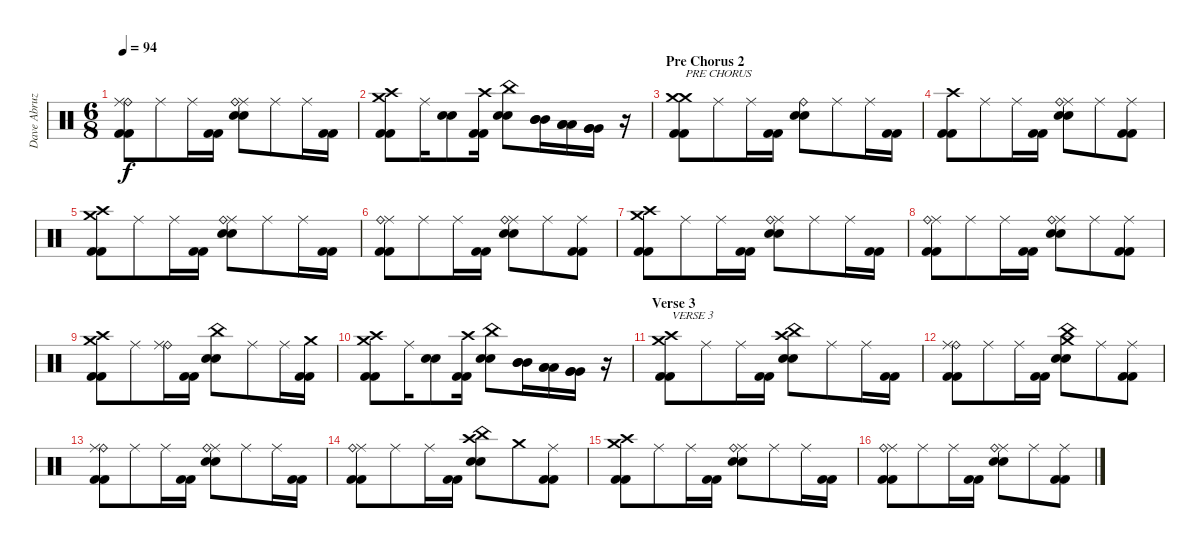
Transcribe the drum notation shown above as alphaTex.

\track ("Dave Abruzzese" "Dave Abruz") {instrument percussion}
\staff {score}
\articulation defaults
\ts (6 8)
\tempo 94
\clef neutral
\ks c
("Ride (bell)" "Ride (middle)" "Kick (hit) 2" "Kick (hit) 2").8{dy f} "Ride (middle)".8 "Ride (middle)".16 ("Kick (hit) 2" "Kick (hit) 2").16 ("Ride (middle)" "Ride (bell)" "Electric Snare (hit)" "Electric Snare (hit)").8 "Ride (middle)".8 "Ride (middle)".16 ("Kick (hit) 2" "Kick (hit) 2").16 |
("Crash medium (hit)" "Crash high (hit)" "Kick (hit) 2" "Kick (hit) 2").8 "Ride (middle)".16 ("Electric Snare (hit)" "Electric Snare (hit)").8 ("Crash high (hit)" "Kick (hit) 2" "Kick (hit) 2").16 ("China (hit)" "Electric Snare (hit)" "Electric Snare (hit)").8 ("Mid Tom (hit)" "Mid Tom (hit)" "Mid Tom (hit)").16 ("Low Tom (hit)" "Low Tom (hit)" "Low Tom (hit)").16 ("Very Low Tom (hit)" "Very Low Tom (hit)" "Very Low Tom (hit)").16 r.16 |
\section ("" "Pre Chorus 2")
("Crash medium (hit)" "Crash medium (hit)" "Kick (hit) 2" "Kick (hit) 2").8{txt "PRE CHORUS"} "Ride (middle)".8 "Ride (middle)".16 ("Kick (hit) 2" "Kick (hit) 2").16 ("Ride (bell)" "Electric Snare (hit)" "Electric Snare (hit)").8 "Ride (middle)".8 "Ride (middle)".16 ("Kick (hit) 2" "Kick (hit) 2").16 |
("Crash high (hit)" "Kick (hit) 2" "Kick (hit) 2").8 "Ride (middle)".8 "Ride (middle)".16 ("Kick (hit) 2" "Kick (hit) 2").16 ("Ride (middle)" "Ride (bell)" "Electric Snare (hit)" "Electric Snare (hit)").8 "Ride (middle)".8 ("Ride (middle)" "Kick (hit) 2" "Kick (hit) 2").8 |
("Crash medium (hit)" "Crash high (hit)" "Kick (hit) 2" "Kick (hit) 2").8 "Ride (middle)".8 "Ride (middle)".16 ("Kick (hit) 2" "Kick (hit) 2").16 ("Ride (middle)" "Ride (bell)" "Electric Snare (hit)" "Electric Snare (hit)").8 "Ride (middle)".8 "Ride (middle)".16 ("Kick (hit) 2" "Kick (hit) 2").16 |
("Ride (middle)" "Ride (bell)" "Kick (hit) 2" "Kick (hit) 2").8 "Ride (middle)".8 "Ride (middle)".16 ("Kick (hit) 2" "Kick (hit) 2").16 ("Ride (middle)" "Ride (bell)" "Electric Snare (hit)" "Electric Snare (hit)").8 "Ride (middle)".8 ("Ride (middle)" "Kick (hit) 2" "Kick (hit) 2").8 |
("Crash medium (hit)" "Crash high (hit)" "Kick (hit) 2" "Kick (hit) 2").8 "Ride (middle)".8 "Ride (middle)".16 ("Kick (hit) 2" "Kick (hit) 2").16 ("Ride (middle)" "Ride (bell)" "Electric Snare (hit)" "Electric Snare (hit)").8 "Ride (middle)".8 "Ride (middle)".16 ("Kick (hit) 2" "Kick (hit) 2").16 |
("Ride (middle)" "Ride (bell)" "Kick (hit) 2" "Kick (hit) 2").8 "Ride (middle)".8 "Ride (middle)".16 ("Kick (hit) 2" "Kick (hit) 2").16 ("Ride (middle)" "Ride (bell)" "Electric Snare (hit)" "Electric Snare (hit)").8 "Ride (middle)".8 ("Ride (middle)" "Kick (hit) 2" "Kick (hit) 2").8 |
("Crash medium (hit)" "Crash high (hit)" "Kick (hit) 2" "Kick (hit) 2").8 "Ride (middle)".8 ("Ride (bell)" "Ride (middle)").16 ("Kick (hit) 2" "Kick (hit) 2").16 ("China (hit)" "Electric Snare (hit)" "Electric Snare (hit)").8 "Ride (middle)".8 "Ride (middle)".16 ("Crash medium (hit)" "Kick (hit) 2" "Kick (hit) 2").16 |
("Crash medium (hit)" "Crash high (hit)" "Kick (hit) 2" "Kick (hit) 2").8 "Ride (middle)".16 ("Electric Snare (hit)" "Electric Snare (hit)").8 ("Crash high (hit)" "Kick (hit) 2" "Kick (hit) 2").16 ("China (hit)" "Electric Snare (hit)" "Electric Snare (hit)").8 ("Mid Tom (hit)" "Mid Tom (hit)" "Mid Tom (hit)").16 ("Low Tom (hit)" "Low Tom (hit)" "Low Tom (hit)").16 ("Very Low Tom (hit)" "Very Low Tom (hit)" "Very Low Tom (hit)").16 r.16 |
\section ("" "Verse 3")
("Crash medium (hit)" "Crash high (hit)" "Kick (hit) 2" "Kick (hit) 2").8{txt "VERSE 3"} "Ride (middle)".8 "Ride (middle)".16 ("Kick (hit) 2" "Kick (hit) 2").16 ("Crash high (hit)" "China (hit)" "Electric Snare (hit)" "Electric Snare (hit)").8 "Ride (middle)".8 "Ride (middle)".16 ("Kick (hit) 2" "Kick (hit) 2").16 |
("Ride (bell)" "Ride (middle)" "Kick (hit) 2" "Kick (hit) 2").8 "Ride (middle)".8 "Ride (middle)".16 ("Kick (hit) 2" "Kick (hit) 2").16 ("Crash medium (hit)" "China (hit)" "Electric Snare (hit)" "Electric Snare (hit)").8 "Ride (middle)".8 ("Ride (middle)" "Kick (hit) 2" "Kick (hit) 2").8 |
("Ride (bell)" "Ride (middle)" "Kick (hit) 2" "Kick (hit) 2").8 "Ride (middle)".8 "Ride (middle)".16 ("Kick (hit) 2" "Kick (hit) 2").16 ("Ride (middle)" "Ride (bell)" "Electric Snare (hit)" "Electric Snare (hit)").8 "Ride (middle)".8 "Ride (middle)".16 ("Kick (hit) 2" "Kick (hit) 2").16 |
("Ride (middle)" "Ride (bell)" "Kick (hit) 2" "Kick (hit) 2").8 "Ride (middle)".8 "Ride (middle)".16 ("Kick (hit) 2" "Kick (hit) 2").16 ("Crash high (hit)" "China (hit)" "Electric Snare (hit)" "Electric Snare (hit)").8 "Crash medium (hit)".8 ("Ride (middle)" "Kick (hit) 2" "Kick (hit) 2").8 |
("Crash medium (hit)" "Crash high (hit)" "Kick (hit) 2" "Kick (hit) 2").8 "Ride (middle)".8 "Ride (middle)".16 ("Kick (hit) 2" "Kick (hit) 2").16 ("Ride (middle)" "Ride (bell)" "Electric Snare (hit)" "Electric Snare (hit)").8 "Ride (middle)".8 "Ride (middle)".16 ("Kick (hit) 2" "Kick (hit) 2").16 |
("Ride (middle)" "Ride (bell)" "Kick (hit) 2" "Kick (hit) 2").8 "Ride (middle)".8 "Ride (middle)".16 ("Kick (hit) 2" "Kick (hit) 2").16 ("Ride (middle)" "Ride (bell)" "Electric Snare (hit)" "Electric Snare (hit)").8 "Ride (middle)".8 ("Ride (middle)" "Kick (hit) 2" "Kick (hit) 2").8
